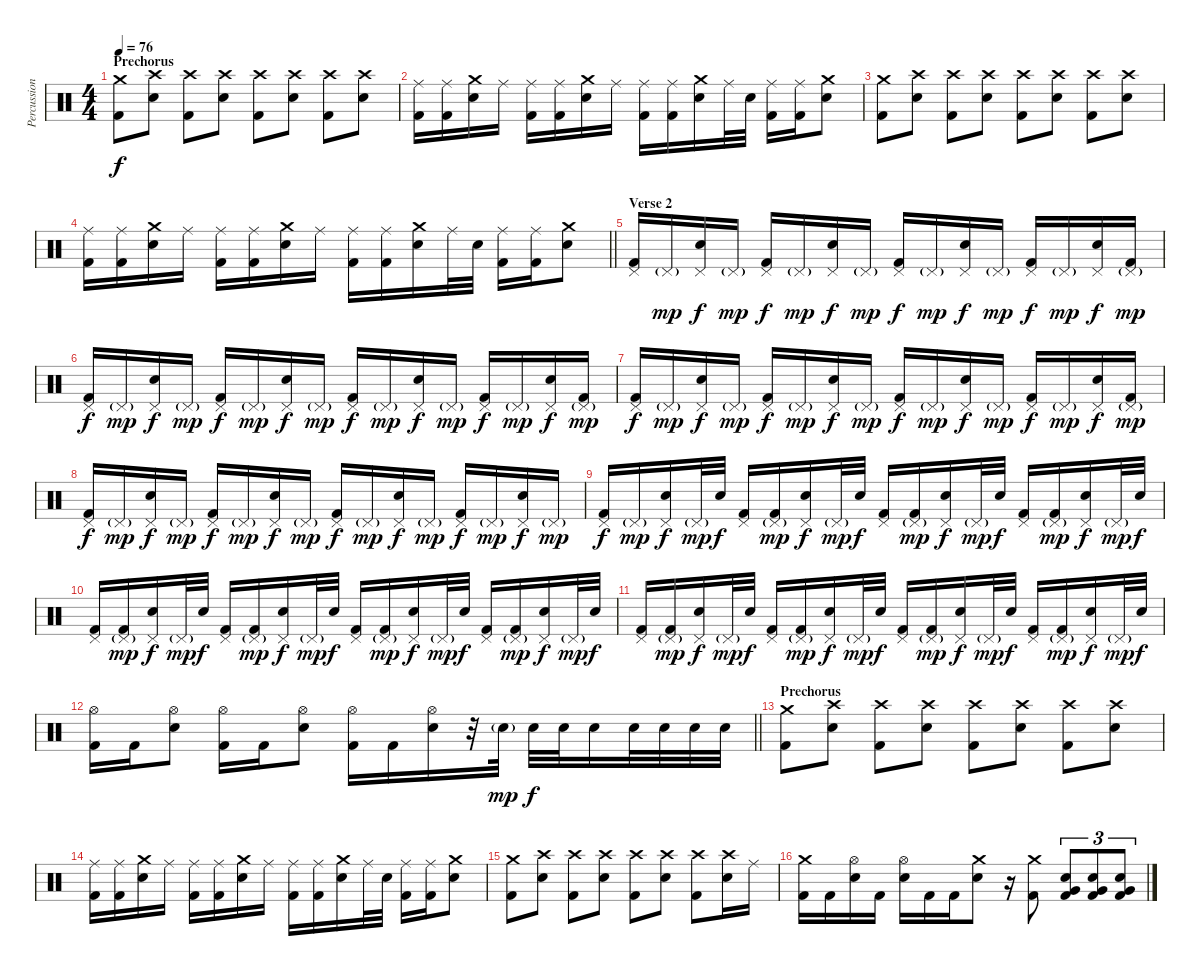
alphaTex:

\track ("Percussion" "Percussion") {instrument percussion}
\staff {score}
\articulation defaults
\ts (4 4)
\section ("" "Prechorus")
\tempo 76
\clef neutral
\ks c
("Crash medium (hit)" "Kick (hit) 2").8{dy f} ("Crash high (hit)" "Electric Snare (hit)").8 ("Crash high (hit)" "Kick (hit) 2").8 ("Crash high (hit)" "Electric Snare (hit)").8 ("Crash high (hit)" "Kick (hit) 2").8 ("Crash high (hit)" "Electric Snare (hit)").8 ("Crash high (hit)" "Kick (hit) 2").8 ("Crash high (hit)" "Electric Snare (hit)").8 |
("Ride (middle)" "Kick (hit) 2").16 ("Ride (middle)" "Kick (hit) 2").16 ("Crash medium (hit)" "Electric Snare (hit)").16 "Ride (middle)".16 ("Ride (middle)" "Kick (hit) 2").16 ("Ride (middle)" "Kick (hit) 2").16 ("Crash medium (hit)" "Electric Snare (hit)").16 "Ride (middle)".16 ("Ride (middle)" "Kick (hit) 2").16 ("Ride (middle)" "Kick (hit) 2").16 ("Crash medium (hit)" "Electric Snare (hit)").16 "Ride (middle)".32 "Electric Snare (hit)".32 ("Ride (middle)" "Kick (hit) 2").16 ("Ride (middle)" "Kick (hit) 2").16 ("Crash medium (hit)" "Electric Snare (hit)").8 |
("Crash medium (hit)" "Kick (hit) 2").8 ("Crash high (hit)" "Electric Snare (hit)").8 ("Crash high (hit)" "Kick (hit) 2").8 ("Crash high (hit)" "Electric Snare (hit)").8 ("Crash high (hit)" "Kick (hit) 2").8 ("Crash high (hit)" "Electric Snare (hit)").8 ("Crash high (hit)" "Kick (hit) 2").8 ("Crash high (hit)" "Electric Snare (hit)").8 |
\barLineRight lightlight
("Ride (middle)" "Kick (hit) 2").16 ("Ride (middle)" "Kick (hit) 2").16 ("Crash medium (hit)" "Electric Snare (hit)").16 "Ride (middle)".16 ("Ride (middle)" "Kick (hit) 2").16 ("Ride (middle)" "Kick (hit) 2").16 ("Crash medium (hit)" "Electric Snare (hit)").16 "Ride (middle)".16 ("Ride (middle)" "Kick (hit) 2").16 ("Ride (middle)" "Kick (hit) 2").16 ("Crash medium (hit)" "Electric Snare (hit)").16 "Ride (middle)".32 "Electric Snare (hit)".32 ("Ride (middle)" "Kick (hit) 2").16 ("Ride (middle)" "Kick (hit) 2").16 ("Crash medium (hit)" "Electric Snare (hit)").8 |
\section ("" "Verse 2")
("Pedal Hi-Hat (hit)" "Kick (hit) 2").16 "Pedal Hi-Hat (hit)"{g}.16{dy mp} ("Pedal Hi-Hat (hit)" "Electric Snare (hit)").16{dy f} "Pedal Hi-Hat (hit)"{g}.16{dy mp} ("Pedal Hi-Hat (hit)" "Kick (hit) 2").16{dy f} "Pedal Hi-Hat (hit)"{g}.16{dy mp} ("Pedal Hi-Hat (hit)" "Electric Snare (hit)").16{dy f} "Pedal Hi-Hat (hit)"{g}.16{dy mp} ("Pedal Hi-Hat (hit)" "Kick (hit) 2").16{dy f} "Pedal Hi-Hat (hit)"{g}.16{dy mp} ("Pedal Hi-Hat (hit)" "Electric Snare (hit)").16{dy f} "Pedal Hi-Hat (hit)"{g}.16{dy mp} ("Pedal Hi-Hat (hit)" "Kick (hit) 2").16{dy f} "Pedal Hi-Hat (hit)"{g}.16{dy mp} ("Pedal Hi-Hat (hit)" "Electric Snare (hit)").16{dy f} ("Pedal Hi-Hat (hit)"{g} "Kick (hit) 2").16{dy mp} |
("Pedal Hi-Hat (hit)" "Kick (hit) 2").16{dy f} "Pedal Hi-Hat (hit)"{g}.16{dy mp} ("Pedal Hi-Hat (hit)" "Electric Snare (hit)").16{dy f} "Pedal Hi-Hat (hit)"{g}.16{dy mp} ("Pedal Hi-Hat (hit)" "Kick (hit) 2").16{dy f} "Pedal Hi-Hat (hit)"{g}.16{dy mp} ("Pedal Hi-Hat (hit)" "Electric Snare (hit)").16{dy f} "Pedal Hi-Hat (hit)"{g}.16{dy mp} ("Pedal Hi-Hat (hit)" "Kick (hit) 2").16{dy f} "Pedal Hi-Hat (hit)"{g}.16{dy mp} ("Pedal Hi-Hat (hit)" "Electric Snare (hit)").16{dy f} "Pedal Hi-Hat (hit)"{g}.16{dy mp} ("Pedal Hi-Hat (hit)" "Kick (hit) 2").16{dy f} "Pedal Hi-Hat (hit)"{g}.16{dy mp} ("Pedal Hi-Hat (hit)" "Electric Snare (hit)").16{dy f} ("Pedal Hi-Hat (hit)"{g} "Kick (hit) 2").16{dy mp} |
("Pedal Hi-Hat (hit)" "Kick (hit) 2").16{dy f} "Pedal Hi-Hat (hit)"{g}.16{dy mp} ("Pedal Hi-Hat (hit)" "Electric Snare (hit)").16{dy f} "Pedal Hi-Hat (hit)"{g}.16{dy mp} ("Pedal Hi-Hat (hit)" "Kick (hit) 2").16{dy f} "Pedal Hi-Hat (hit)"{g}.16{dy mp} ("Pedal Hi-Hat (hit)" "Electric Snare (hit)").16{dy f} "Pedal Hi-Hat (hit)"{g}.16{dy mp} ("Pedal Hi-Hat (hit)" "Kick (hit) 2").16{dy f} "Pedal Hi-Hat (hit)"{g}.16{dy mp} ("Pedal Hi-Hat (hit)" "Electric Snare (hit)").16{dy f} "Pedal Hi-Hat (hit)"{g}.16{dy mp} ("Pedal Hi-Hat (hit)" "Kick (hit) 2").16{dy f} "Pedal Hi-Hat (hit)"{g}.16{dy mp} ("Pedal Hi-Hat (hit)" "Electric Snare (hit)").16{dy f} ("Pedal Hi-Hat (hit)"{g} "Kick (hit) 2").16{dy mp} |
("Pedal Hi-Hat (hit)" "Kick (hit) 2").16{dy f} "Pedal Hi-Hat (hit)"{g}.16{dy mp} ("Pedal Hi-Hat (hit)" "Electric Snare (hit)").16{dy f} "Pedal Hi-Hat (hit)"{g}.16{dy mp} ("Pedal Hi-Hat (hit)" "Kick (hit) 2").16{dy f} "Pedal Hi-Hat (hit)"{g}.16{dy mp} ("Pedal Hi-Hat (hit)" "Electric Snare (hit)").16{dy f} "Pedal Hi-Hat (hit)"{g}.16{dy mp} ("Pedal Hi-Hat (hit)" "Kick (hit) 2").16{dy f} "Pedal Hi-Hat (hit)"{g}.16{dy mp} ("Pedal Hi-Hat (hit)" "Electric Snare (hit)").16{dy f} "Pedal Hi-Hat (hit)"{g}.16{dy mp} ("Pedal Hi-Hat (hit)" "Kick (hit) 2").16{dy f} "Pedal Hi-Hat (hit)"{g}.16{dy mp} ("Pedal Hi-Hat (hit)" "Electric Snare (hit)").16{dy f} "Pedal Hi-Hat (hit)"{g}.16{dy mp} |
("Pedal Hi-Hat (hit)" "Kick (hit) 2").16{dy f} "Pedal Hi-Hat (hit)"{g}.16{dy mp} ("Pedal Hi-Hat (hit)" "Electric Snare (hit)").16{dy f} "Pedal Hi-Hat (hit)"{g}.32{dy mp} "Electric Snare (hit)".32{dy f} ("Pedal Hi-Hat (hit)" "Kick (hit) 2").16 ("Pedal Hi-Hat (hit)"{g} "Kick (hit) 2").16{dy mp} ("Pedal Hi-Hat (hit)" "Electric Snare (hit)").16{dy f} "Pedal Hi-Hat (hit)"{g}.32{dy mp} "Electric Snare (hit)".32{dy f} ("Pedal Hi-Hat (hit)" "Kick (hit) 2").16 ("Pedal Hi-Hat (hit)"{g} "Kick (hit) 2").16{dy mp} ("Pedal Hi-Hat (hit)" "Electric Snare (hit)").16{dy f} "Pedal Hi-Hat (hit)"{g}.32{dy mp} "Electric Snare (hit)".32{dy f} ("Pedal Hi-Hat (hit)" "Kick (hit) 2").16 ("Pedal Hi-Hat (hit)"{g} "Kick (hit) 2").16{dy mp} ("Pedal Hi-Hat (hit)" "Electric Snare (hit)").16{dy f} "Pedal Hi-Hat (hit)"{g}.32{dy mp} "Electric Snare (hit)".32{dy f} |
("Pedal Hi-Hat (hit)" "Kick (hit) 2").16 ("Pedal Hi-Hat (hit)"{g} "Kick (hit) 2").16{dy mp} ("Pedal Hi-Hat (hit)" "Electric Snare (hit)").16{dy f} "Pedal Hi-Hat (hit)"{g}.32{dy mp} "Electric Snare (hit)".32{dy f} ("Pedal Hi-Hat (hit)" "Kick (hit) 2").16 ("Pedal Hi-Hat (hit)"{g} "Kick (hit) 2").16{dy mp} ("Pedal Hi-Hat (hit)" "Electric Snare (hit)").16{dy f} "Pedal Hi-Hat (hit)"{g}.32{dy mp} "Electric Snare (hit)".32{dy f} ("Pedal Hi-Hat (hit)" "Kick (hit) 2").16 ("Pedal Hi-Hat (hit)"{g} "Kick (hit) 2").16{dy mp} ("Pedal Hi-Hat (hit)" "Electric Snare (hit)").16{dy f} "Pedal Hi-Hat (hit)"{g}.32{dy mp} "Electric Snare (hit)".32{dy f} ("Pedal Hi-Hat (hit)" "Kick (hit) 2").16 ("Pedal Hi-Hat (hit)"{g} "Kick (hit) 2").16{dy mp} ("Pedal Hi-Hat (hit)" "Electric Snare (hit)").16{dy f} "Pedal Hi-Hat (hit)"{g}.32{dy mp} "Electric Snare (hit)".32{dy f} |
("Pedal Hi-Hat (hit)" "Kick (hit) 2").16 ("Pedal Hi-Hat (hit)"{g} "Kick (hit) 2").16{dy mp} ("Pedal Hi-Hat (hit)" "Electric Snare (hit)").16{dy f} "Pedal Hi-Hat (hit)"{g}.32{dy mp} "Electric Snare (hit)".32{dy f} ("Pedal Hi-Hat (hit)" "Kick (hit) 2").16 ("Pedal Hi-Hat (hit)"{g} "Kick (hit) 2").16{dy mp} ("Pedal Hi-Hat (hit)" "Electric Snare (hit)").16{dy f} "Pedal Hi-Hat (hit)"{g}.32{dy mp} "Electric Snare (hit)".32{dy f} ("Pedal Hi-Hat (hit)" "Kick (hit) 2").16 ("Pedal Hi-Hat (hit)"{g} "Kick (hit) 2").16{dy mp} ("Pedal Hi-Hat (hit)" "Electric Snare (hit)").16{dy f} "Pedal Hi-Hat (hit)"{g}.32{dy mp} "Electric Snare (hit)".32{dy f} ("Pedal Hi-Hat (hit)" "Kick (hit) 2").16 ("Pedal Hi-Hat (hit)"{g} "Kick (hit) 2").16{dy mp} ("Pedal Hi-Hat (hit)" "Electric Snare (hit)").16{dy f} "Pedal Hi-Hat (hit)"{g}.32{dy mp} "Electric Snare (hit)".32{dy f} |
\barLineRight lightlight
("Hi-Hat (open)" "Kick (hit) 2").16 "Kick (hit) 2".16 ("Hi-Hat (open)" "Electric Snare (hit)").8 ("Hi-Hat (open)" "Kick (hit) 2").16 "Kick (hit) 2".16 ("Hi-Hat (open)" "Electric Snare (hit)").8 ("Hi-Hat (open)" "Kick (hit) 2").16 "Kick (hit) 2".16 ("Hi-Hat (open)" "Electric Snare (hit)").16 r.32 "Electric Snare (hit)"{g}.32{dy mp} "Electric Snare (hit)".32{dy f} "Electric Snare (hit)".32 "Electric Snare (hit)".16 "Electric Snare (hit)".32 "Electric Snare (hit)".32 "Electric Snare (hit)".32 "Electric Snare (hit)".32 |
\section ("" "Prechorus")
("Crash medium (hit)" "Kick (hit) 2").8 ("Crash high (hit)" "Electric Snare (hit)").8 ("Crash high (hit)" "Kick (hit) 2").8 ("Crash high (hit)" "Electric Snare (hit)").8 ("Crash high (hit)" "Kick (hit) 2").8 ("Crash high (hit)" "Electric Snare (hit)").8 ("Crash high (hit)" "Kick (hit) 2").8 ("Crash high (hit)" "Electric Snare (hit)").8 |
("Ride (middle)" "Kick (hit) 2").16 ("Ride (middle)" "Kick (hit) 2").16 ("Crash medium (hit)" "Electric Snare (hit)").16 "Ride (middle)".16 ("Ride (middle)" "Kick (hit) 2").16 ("Ride (middle)" "Kick (hit) 2").16 ("Crash medium (hit)" "Electric Snare (hit)").16 "Ride (middle)".16 ("Ride (middle)" "Kick (hit) 2").16 ("Ride (middle)" "Kick (hit) 2").16 ("Crash medium (hit)" "Electric Snare (hit)").16 "Ride (middle)".32 "Electric Snare (hit)".32 ("Ride (middle)" "Kick (hit) 2").16 ("Ride (middle)" "Kick (hit) 2").16 ("Crash medium (hit)" "Electric Snare (hit)").8 |
("Crash medium (hit)" "Kick (hit) 2").8 ("Crash high (hit)" "Electric Snare (hit)").8 ("Crash high (hit)" "Kick (hit) 2").8 ("Crash high (hit)" "Electric Snare (hit)").8 ("Crash high (hit)" "Kick (hit) 2").8 ("Crash high (hit)" "Electric Snare (hit)").8 ("Crash high (hit)" "Kick (hit) 2").8 ("Crash high (hit)" "Electric Snare (hit)").16 "Ride (middle)".16 |
("Crash medium (hit)" "Kick (hit) 2").16 "Kick (hit) 2".16 ("Hi-Hat (open)" "Electric Snare (hit)").16 "Kick (hit) 2".16 ("Hi-Hat (open)" "Electric Snare (hit)").16 "Kick (hit) 2".16 "Kick (hit) 2".16 ("Crash medium (hit)" "Electric Snare (hit)").8 r.16 ("Crash medium (hit)" "Kick (hit) 2").8 ("Very Low Tom (hit)" "Electric Snare (hit)" "Kick (hit) 2").8{tu (3 2)} ("Very Low Tom (hit)" "Electric Snare (hit)" "Kick (hit) 2").8{tu (3 2)} ("Very Low Tom (hit)" "Electric Snare (hit)" "Kick (hit) 2").8{tu (3 2)}
